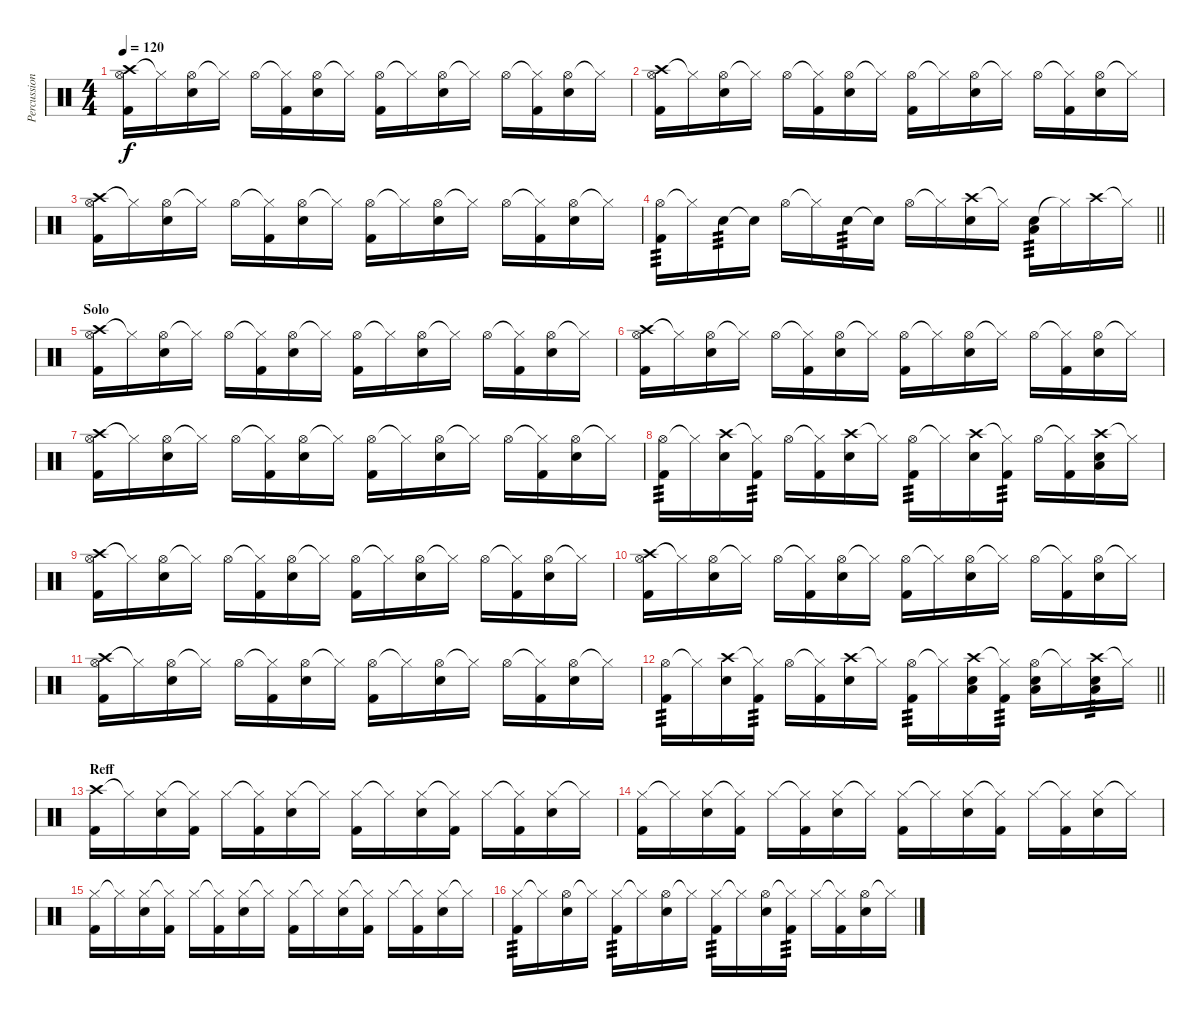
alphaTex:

\track ("Percussion" "Percussion") {instrument percussion}
\staff {score}
\articulation defaults
\ts (4 4)
\tempo 120
\clef neutral
\ks c
("Crash high (hit)" "Hi-Hat (open)" "Kick (hit) 2").16{dy f} "Hi-Hat (closed)"{t}.16 ("Hi-Hat (open)" "Electric Snare (hit)").16 "Hi-Hat (closed)"{t}.16 "Hi-Hat (open)".16 ("Hi-Hat (closed)"{t} "Kick (hit) 2").16 ("Hi-Hat (open)" "Electric Snare (hit)").16 "Hi-Hat (closed)"{t}.16 ("Hi-Hat (open)" "Kick (hit) 2").16 "Hi-Hat (closed)"{t}.16 ("Hi-Hat (open)" "Electric Snare (hit)").16 "Hi-Hat (closed)"{t}.16 "Hi-Hat (open)".16 ("Hi-Hat (closed)"{t} "Kick (hit) 2").16 ("Hi-Hat (open)" "Electric Snare (hit)").16 "Hi-Hat (closed)"{t}.16 |
("Crash high (hit)" "Hi-Hat (open)" "Kick (hit) 2").16 "Hi-Hat (closed)"{t}.16 ("Hi-Hat (open)" "Electric Snare (hit)").16 "Hi-Hat (closed)"{t}.16 "Hi-Hat (open)".16 ("Hi-Hat (closed)"{t} "Kick (hit) 2").16 ("Hi-Hat (open)" "Electric Snare (hit)").16 "Hi-Hat (closed)"{t}.16 ("Hi-Hat (open)" "Kick (hit) 2").16 "Hi-Hat (closed)"{t}.16 ("Hi-Hat (open)" "Electric Snare (hit)").16 "Hi-Hat (closed)"{t}.16 "Hi-Hat (open)".16 ("Hi-Hat (closed)"{t} "Kick (hit) 2").16 ("Hi-Hat (open)" "Electric Snare (hit)").16 "Hi-Hat (closed)"{t}.16 |
("Crash high (hit)" "Hi-Hat (open)" "Kick (hit) 2").16 "Hi-Hat (closed)"{t}.16 ("Hi-Hat (open)" "Electric Snare (hit)").16 "Hi-Hat (closed)"{t}.16 "Hi-Hat (open)".16 ("Hi-Hat (closed)"{t} "Kick (hit) 2").16 ("Hi-Hat (open)" "Electric Snare (hit)").16 "Hi-Hat (closed)"{t}.16 ("Hi-Hat (open)" "Kick (hit) 2").16 "Hi-Hat (closed)"{t}.16 ("Hi-Hat (open)" "Electric Snare (hit)").16 "Hi-Hat (closed)"{t}.16 "Hi-Hat (open)".16 ("Hi-Hat (closed)"{t} "Kick (hit) 2").16 ("Hi-Hat (open)" "Electric Snare (hit)").16 "Hi-Hat (closed)"{t}.16 |
\barLineRight lightlight
("Hi-Hat (open)" "Kick (hit) 2").16{tp 3} "Hi-Hat (closed)"{t}.16 "Electric Snare (hit)".16{tp 3} "Snare (hit)"{t}.16 "Hi-Hat (open)".16 "Hi-Hat (closed)"{t}.16 "Electric Snare (hit)".16{tp 3} "Snare (hit)"{t}.16 "Hi-Hat (open)".16 "Hi-Hat (closed)"{t}.16 ("Crash high (hit)" "Electric Snare (hit)").16 "Hi-Hat (closed)"{t}.16 ("Electric Snare (hit)" "Low Tom (hit)").16{tp 3} "Hi-Hat (closed)"{t}.16 "Crash high (hit)".16 "Hi-Hat (closed)"{t}.16 |
\section ("" "Solo")
("Crash high (hit)" "Hi-Hat (open)" "Kick (hit) 2").16 "Hi-Hat (closed)"{t}.16 ("Hi-Hat (open)" "Electric Snare (hit)").16 "Hi-Hat (closed)"{t}.16 "Hi-Hat (open)".16 ("Hi-Hat (closed)"{t} "Kick (hit) 2").16 ("Hi-Hat (open)" "Electric Snare (hit)").16 "Hi-Hat (closed)"{t}.16 ("Hi-Hat (open)" "Kick (hit) 2").16 "Hi-Hat (closed)"{t}.16 ("Hi-Hat (open)" "Electric Snare (hit)").16 "Hi-Hat (closed)"{t}.16 "Hi-Hat (open)".16 ("Hi-Hat (closed)"{t} "Kick (hit) 2").16 ("Hi-Hat (open)" "Electric Snare (hit)").16 "Hi-Hat (closed)"{t}.16 |
("Crash high (hit)" "Hi-Hat (open)" "Kick (hit) 2").16 "Hi-Hat (closed)"{t}.16 ("Hi-Hat (open)" "Electric Snare (hit)").16 "Hi-Hat (closed)"{t}.16 "Hi-Hat (open)".16 ("Hi-Hat (closed)"{t} "Kick (hit) 2").16 ("Hi-Hat (open)" "Electric Snare (hit)").16 "Hi-Hat (closed)"{t}.16 ("Hi-Hat (open)" "Kick (hit) 2").16 "Hi-Hat (closed)"{t}.16 ("Hi-Hat (open)" "Electric Snare (hit)").16 "Hi-Hat (closed)"{t}.16 "Hi-Hat (open)".16 ("Hi-Hat (closed)"{t} "Kick (hit) 2").16 ("Hi-Hat (open)" "Electric Snare (hit)").16 "Hi-Hat (closed)"{t}.16 |
("Crash high (hit)" "Hi-Hat (open)" "Kick (hit) 2").16 "Hi-Hat (closed)"{t}.16 ("Hi-Hat (open)" "Electric Snare (hit)").16 "Hi-Hat (closed)"{t}.16 "Hi-Hat (open)".16 ("Hi-Hat (closed)"{t} "Kick (hit) 2").16 ("Hi-Hat (open)" "Electric Snare (hit)").16 "Hi-Hat (closed)"{t}.16 ("Hi-Hat (open)" "Kick (hit) 2").16 "Hi-Hat (closed)"{t}.16 ("Hi-Hat (open)" "Electric Snare (hit)").16 "Hi-Hat (closed)"{t}.16 "Hi-Hat (open)".16 ("Hi-Hat (closed)"{t} "Kick (hit) 2").16 ("Hi-Hat (open)" "Electric Snare (hit)").16 "Hi-Hat (closed)"{t}.16 |
("Hi-Hat (open)" "Kick (hit) 2").16{tp 3} "Hi-Hat (closed)"{t}.16 ("Crash high (hit)" "Electric Snare (hit)").16 ("Hi-Hat (closed)"{t} "Kick (hit) 2").16{tp 3} "Hi-Hat (open)".16 ("Hi-Hat (closed)"{t} "Kick (hit) 2").16 ("Crash high (hit)" "Electric Snare (hit)").16 "Hi-Hat (closed)"{t}.16 ("Hi-Hat (open)" "Kick (hit) 2").16{tp 3} "Hi-Hat (closed)"{t}.16 ("Crash high (hit)" "Electric Snare (hit)").16 ("Hi-Hat (closed)"{t} "Kick (hit) 2").16{tp 3} "Hi-Hat (open)".16 ("Hi-Hat (closed)"{t} "Kick (hit) 2").16 ("Crash high (hit)" "Electric Snare (hit)" "Low Tom (hit)").16 "Hi-Hat (closed)"{t}.16 |
("Crash high (hit)" "Hi-Hat (open)" "Kick (hit) 2").16 "Hi-Hat (closed)"{t}.16 ("Hi-Hat (open)" "Electric Snare (hit)").16 "Hi-Hat (closed)"{t}.16 "Hi-Hat (open)".16 ("Hi-Hat (closed)"{t} "Kick (hit) 2").16 ("Hi-Hat (open)" "Electric Snare (hit)").16 "Hi-Hat (closed)"{t}.16 ("Hi-Hat (open)" "Kick (hit) 2").16 "Hi-Hat (closed)"{t}.16 ("Hi-Hat (open)" "Electric Snare (hit)").16 "Hi-Hat (closed)"{t}.16 "Hi-Hat (open)".16 ("Hi-Hat (closed)"{t} "Kick (hit) 2").16 ("Hi-Hat (open)" "Electric Snare (hit)").16 "Hi-Hat (closed)"{t}.16 |
("Crash high (hit)" "Hi-Hat (open)" "Kick (hit) 2").16 "Hi-Hat (closed)"{t}.16 ("Hi-Hat (open)" "Electric Snare (hit)").16 "Hi-Hat (closed)"{t}.16 "Hi-Hat (open)".16 ("Hi-Hat (closed)"{t} "Kick (hit) 2").16 ("Hi-Hat (open)" "Electric Snare (hit)").16 "Hi-Hat (closed)"{t}.16 ("Hi-Hat (open)" "Kick (hit) 2").16 "Hi-Hat (closed)"{t}.16 ("Hi-Hat (open)" "Electric Snare (hit)").16 "Hi-Hat (closed)"{t}.16 "Hi-Hat (open)".16 ("Hi-Hat (closed)"{t} "Kick (hit) 2").16 ("Hi-Hat (open)" "Electric Snare (hit)").16 "Hi-Hat (closed)"{t}.16 |
("Crash high (hit)" "Hi-Hat (open)" "Kick (hit) 2").16 "Hi-Hat (closed)"{t}.16 ("Hi-Hat (open)" "Electric Snare (hit)").16 "Hi-Hat (closed)"{t}.16 "Hi-Hat (open)".16 ("Hi-Hat (closed)"{t} "Kick (hit) 2").16 ("Hi-Hat (open)" "Electric Snare (hit)").16 "Hi-Hat (closed)"{t}.16 ("Hi-Hat (open)" "Kick (hit) 2").16 "Hi-Hat (closed)"{t}.16 ("Hi-Hat (open)" "Electric Snare (hit)").16 "Hi-Hat (closed)"{t}.16 "Hi-Hat (open)".16 ("Hi-Hat (closed)"{t} "Kick (hit) 2").16 ("Hi-Hat (open)" "Electric Snare (hit)").16 "Hi-Hat (closed)"{t}.16 |
\barLineRight lightlight
("Hi-Hat (open)" "Kick (hit) 2").16{tp 3} "Hi-Hat (closed)"{t}.16 ("Crash high (hit)" "Electric Snare (hit)").16 ("Hi-Hat (closed)"{t} "Kick (hit) 2").16{tp 3} "Hi-Hat (open)".16 ("Hi-Hat (closed)"{t} "Kick (hit) 2").16 ("Crash high (hit)" "Electric Snare (hit)").16 "Hi-Hat (closed)"{t}.16 ("Hi-Hat (open)" "Kick (hit) 2").16{tp 3} "Hi-Hat (closed)"{t}.16 ("Crash high (hit)" "Electric Snare (hit)" "Low Tom (hit)").16 ("Hi-Hat (closed)"{t} "Kick (hit) 2").16{tp 3} ("Hi-Hat (open)" "Electric Snare (hit)" "Low Tom (hit)").16 "Hi-Hat (closed)"{t}.16 ("Crash high (hit)" "Electric Snare (hit)" "Low Tom (hit)").16{tp 3} "Hi-Hat (closed)"{t}.16 |
\section ("" "Reff")
("Crash high (hit)" "Kick (hit) 2").16 "Hi-Hat (closed)"{t}.16 ("Hi-Hat (closed)" "Electric Snare (hit)").16 ("Hi-Hat (closed)"{t} "Kick (hit) 2").16 "Hi-Hat (closed)".16 ("Hi-Hat (closed)"{t} "Kick (hit) 2").16 ("Hi-Hat (closed)" "Electric Snare (hit)").16 "Hi-Hat (closed)"{t}.16 ("Hi-Hat (closed)" "Kick (hit) 2").16 "Hi-Hat (closed)"{t}.16 ("Hi-Hat (closed)" "Electric Snare (hit)").16 ("Hi-Hat (closed)"{t} "Kick (hit) 2").16 "Hi-Hat (closed)".16 ("Hi-Hat (closed)"{t} "Kick (hit) 2").16 ("Hi-Hat (closed)" "Electric Snare (hit)").16 "Hi-Hat (closed)"{t}.16 |
("Hi-Hat (closed)" "Kick (hit) 2").16 "Hi-Hat (closed)"{t}.16 ("Hi-Hat (closed)" "Electric Snare (hit)").16 ("Hi-Hat (closed)"{t} "Kick (hit) 2").16 "Hi-Hat (closed)".16 ("Hi-Hat (closed)"{t} "Kick (hit) 2").16 ("Hi-Hat (closed)" "Electric Snare (hit)").16 "Hi-Hat (closed)"{t}.16 ("Hi-Hat (closed)" "Kick (hit) 2").16 "Hi-Hat (closed)"{t}.16 ("Hi-Hat (closed)" "Electric Snare (hit)").16 ("Hi-Hat (closed)"{t} "Kick (hit) 2").16 "Hi-Hat (closed)".16 ("Hi-Hat (closed)"{t} "Kick (hit) 2").16 ("Hi-Hat (closed)" "Electric Snare (hit)").16 "Hi-Hat (closed)"{t}.16 |
("Hi-Hat (closed)" "Kick (hit) 2").16 "Hi-Hat (closed)"{t}.16 ("Hi-Hat (closed)" "Electric Snare (hit)").16 ("Hi-Hat (closed)"{t} "Kick (hit) 2").16 "Hi-Hat (closed)".16 ("Hi-Hat (closed)"{t} "Kick (hit) 2").16 ("Hi-Hat (closed)" "Electric Snare (hit)").16 "Hi-Hat (closed)"{t}.16 ("Hi-Hat (closed)" "Kick (hit) 2").16 "Hi-Hat (closed)"{t}.16 ("Hi-Hat (closed)" "Electric Snare (hit)").16 ("Hi-Hat (closed)"{t} "Kick (hit) 2").16 "Hi-Hat (closed)".16 ("Hi-Hat (closed)"{t} "Kick (hit) 2").16 ("Hi-Hat (closed)" "Electric Snare (hit)").16 "Hi-Hat (closed)"{t}.16 |
("Hi-Hat (closed)" "Kick (hit) 2").16{tp 3} "Hi-Hat (closed)"{t}.16 ("Hi-Hat (open)" "Electric Snare (hit)").16 "Hi-Hat (closed)"{t}.16 ("Hi-Hat (closed)" "Kick (hit) 2").16{tp 3} "Hi-Hat (closed)"{t}.16 ("Hi-Hat (open)" "Electric Snare (hit)").16 "Hi-Hat (closed)"{t}.16 ("Hi-Hat (closed)" "Kick (hit) 2").16{tp 3} "Hi-Hat (closed)"{t}.16 ("Hi-Hat (open)" "Electric Snare (hit)").16 ("Hi-Hat (closed)"{t} "Kick (hit) 2").16{tp 3} "Hi-Hat (closed)".16 ("Hi-Hat (closed)"{t} "Kick (hit) 2").16 ("Hi-Hat (open)" "Electric Snare (hit)").16 "Hi-Hat (closed)"{t}.16
